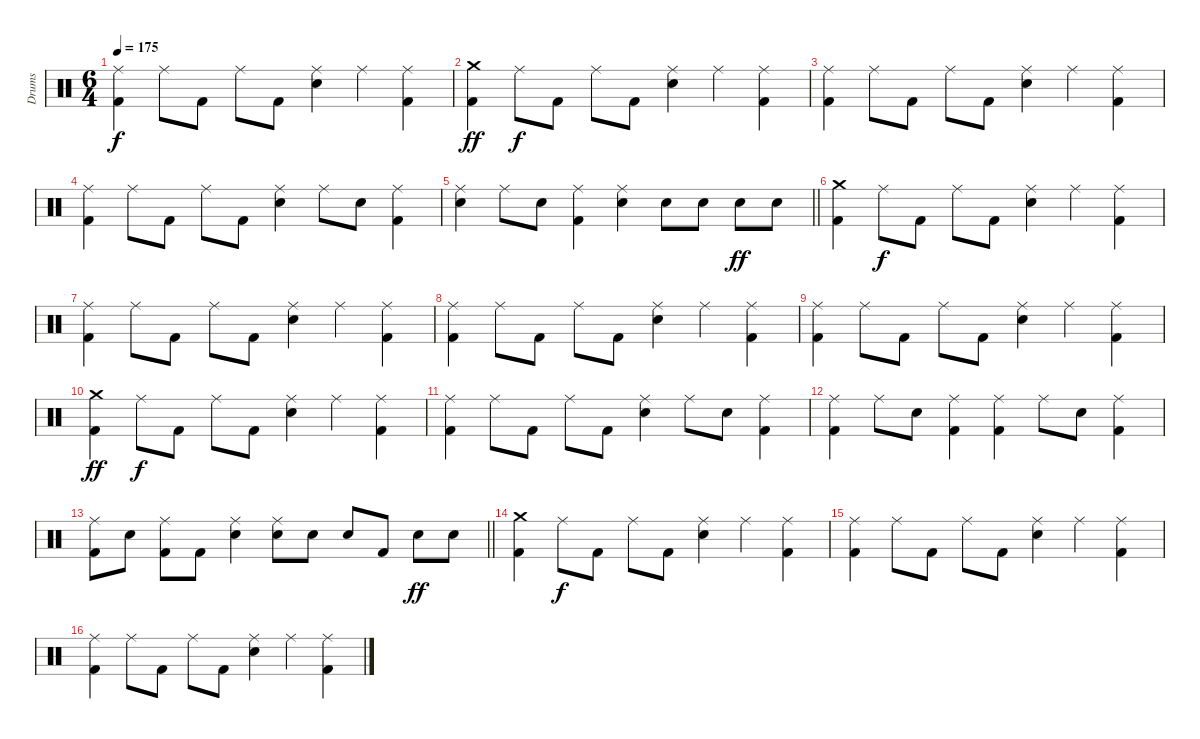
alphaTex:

\track ("Drums" "Drums") {instrument percussion}
\staff {score}
\articulation defaults
\ts (6 4)
\tempo 175
\clef neutral
\ks c
("Ride (middle)" "Kick (hit) 2").4{dy f} "Ride (middle)".8 "Kick (hit) 2".8 "Ride (middle)".8 "Kick (hit) 2".8 ("Ride (middle)" "Snare (hit) 2").4 "Ride (middle)".4 ("Ride (middle)" "Kick (hit) 2").4 |
("Crash medium (hit)" "Kick (hit) 2").4{dy ff} "Ride (middle)".8{dy f} "Kick (hit) 2".8 "Ride (middle)".8 "Kick (hit) 2".8 ("Ride (middle)" "Snare (hit) 2").4 "Ride (middle)".4 ("Ride (middle)" "Kick (hit) 2").4 |
("Ride (middle)" "Kick (hit) 2").4 "Ride (middle)".8 "Kick (hit) 2".8 "Ride (middle)".8 "Kick (hit) 2".8 ("Ride (middle)" "Snare (hit) 2").4 "Ride (middle)".4 ("Ride (middle)" "Kick (hit) 2").4 |
("Ride (middle)" "Kick (hit) 2").4 "Ride (middle)".8 "Kick (hit) 2".8 "Ride (middle)".8 "Kick (hit) 2".8 ("Ride (middle)" "Snare (hit) 2").4 "Ride (middle)".8 "Snare (hit) 2".8 ("Ride (middle)" "Kick (hit) 2").4 |
\barLineRight lightlight
("Ride (middle)" "Snare (hit) 2").4 "Ride (middle)".8 "Snare (hit) 2".8 ("Ride (middle)" "Kick (hit) 2").4 ("Ride (middle)" "Snare (hit) 2").4 "Snare (hit) 2".8 "Snare (hit) 2".8 "Snare (hit) 2".8{dy ff} "Snare (hit) 2".8 |
\section ("" "")
("Crash medium (hit)" "Kick (hit) 2").4 "Ride (middle)".8{dy f} "Kick (hit) 2".8 "Ride (middle)".8 "Kick (hit) 2".8 ("Ride (middle)" "Snare (hit) 2").4 "Ride (middle)".4 ("Ride (middle)" "Kick (hit) 2").4 |
("Ride (middle)" "Kick (hit) 2").4 "Ride (middle)".8 "Kick (hit) 2".8 "Ride (middle)".8 "Kick (hit) 2".8 ("Ride (middle)" "Snare (hit) 2").4 "Ride (middle)".4 ("Ride (middle)" "Kick (hit) 2").4 |
("Ride (middle)" "Kick (hit) 2").4 "Ride (middle)".8 "Kick (hit) 2".8 "Ride (middle)".8 "Kick (hit) 2".8 ("Ride (middle)" "Snare (hit) 2").4 "Ride (middle)".4 ("Ride (middle)" "Kick (hit) 2").4 |
("Ride (middle)" "Kick (hit) 2").4 "Ride (middle)".8 "Kick (hit) 2".8 "Ride (middle)".8 "Kick (hit) 2".8 ("Ride (middle)" "Snare (hit) 2").4 "Ride (middle)".4 ("Ride (middle)" "Kick (hit) 2").4 |
("Crash medium (hit)" "Kick (hit) 2").4{dy ff} "Ride (middle)".8{dy f} "Kick (hit) 2".8 "Ride (middle)".8 "Kick (hit) 2".8 ("Ride (middle)" "Snare (hit) 2").4 "Ride (middle)".4 ("Ride (middle)" "Kick (hit) 2").4 |
("Ride (middle)" "Kick (hit) 2").4 "Ride (middle)".8 "Kick (hit) 2".8 "Ride (middle)".8 "Kick (hit) 2".8 ("Ride (middle)" "Snare (hit) 2").4 "Ride (middle)".8 "Snare (hit) 2".8 ("Ride (middle)" "Kick (hit) 2").4 |
("Ride (middle)" "Kick (hit) 2").4 "Ride (middle)".8 "Snare (hit) 2".8 ("Ride (middle)" "Kick (hit) 2").4 ("Ride (middle)" "Kick (hit) 2").4 "Ride (middle)".8 "Snare (hit) 2".8 ("Ride (middle)" "Kick (hit) 2").4 |
\barLineRight lightlight
("Ride (middle)" "Kick (hit) 2").8 "Snare (hit) 2".8 ("Ride (middle)" "Kick (hit) 2").8 "Kick (hit) 2".8 ("Ride (middle)" "Snare (hit) 2").4 ("Ride (middle)" "Snare (hit) 2").8 "Snare (hit) 2".8 "Snare (hit) 2".8 "Kick (hit) 2".8 "Snare (hit) 2".8{dy ff} "Snare (hit) 2".8 |
\section ("" "")
("Crash medium (hit)" "Kick (hit) 2").4 "Ride (middle)".8{dy f} "Kick (hit) 2".8 "Ride (middle)".8 "Kick (hit) 2".8 ("Ride (middle)" "Snare (hit) 2").4 "Ride (middle)".4 ("Ride (middle)" "Kick (hit) 2").4 |
("Ride (middle)" "Kick (hit) 2").4 "Ride (middle)".8 "Kick (hit) 2".8 "Ride (middle)".8 "Kick (hit) 2".8 ("Ride (middle)" "Snare (hit) 2").4 "Ride (middle)".4 ("Ride (middle)" "Kick (hit) 2").4 |
("Ride (middle)" "Kick (hit) 2").4 "Ride (middle)".8 "Kick (hit) 2".8 "Ride (middle)".8 "Kick (hit) 2".8 ("Ride (middle)" "Snare (hit) 2").4 "Ride (middle)".4 ("Ride (middle)" "Kick (hit) 2").4
